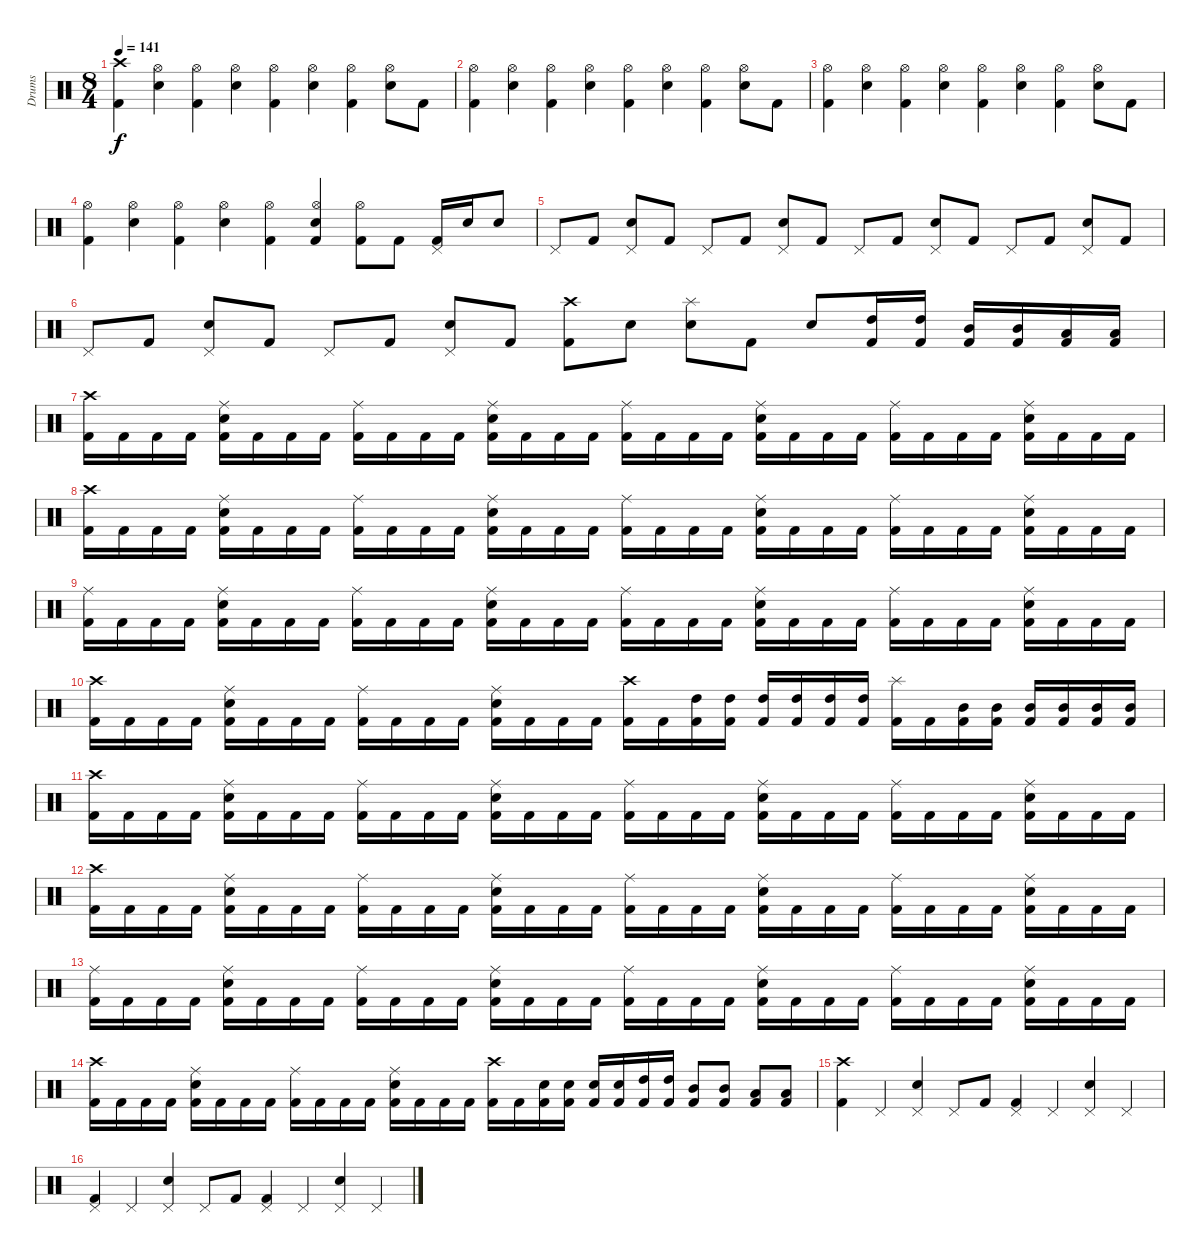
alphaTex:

\track ("Drums" "Drums") {instrument percussion}
\staff {score}
\articulation defaults
\ts (8 4)
\tempo 141
\clef neutral
\ks c
("Crash high (hit)" "Kick (hit) 2").4{dy f} ("Hi-Hat (open)" "Snare (hit) 2").4 ("Hi-Hat (open)" "Kick (hit) 2").4 ("Hi-Hat (open)" "Snare (hit) 2").4 ("Hi-Hat (open)" "Kick (hit) 2").4 ("Hi-Hat (open)" "Snare (hit) 2").4 ("Hi-Hat (open)" "Kick (hit) 2").4 ("Hi-Hat (open)" "Snare (hit) 2").8 "Kick (hit) 2".8 |
("Hi-Hat (open)" "Kick (hit) 2").4 ("Hi-Hat (open)" "Snare (hit) 2").4 ("Hi-Hat (open)" "Kick (hit) 2").4 ("Hi-Hat (open)" "Snare (hit) 2").4 ("Hi-Hat (open)" "Kick (hit) 2").4 ("Hi-Hat (open)" "Snare (hit) 2").4 ("Hi-Hat (open)" "Kick (hit) 2").4 ("Hi-Hat (open)" "Snare (hit) 2").8 "Kick (hit) 2".8 |
("Hi-Hat (open)" "Kick (hit) 2").4 ("Hi-Hat (open)" "Snare (hit) 2").4 ("Hi-Hat (open)" "Kick (hit) 2").4 ("Hi-Hat (open)" "Snare (hit) 2").4 ("Hi-Hat (open)" "Kick (hit) 2").4 ("Hi-Hat (open)" "Snare (hit) 2").4 ("Hi-Hat (open)" "Kick (hit) 2").4 ("Hi-Hat (open)" "Snare (hit) 2").8 "Kick (hit) 2".8 |
("Hi-Hat (open)" "Kick (hit) 2").4 ("Hi-Hat (open)" "Snare (hit) 2").4 ("Hi-Hat (open)" "Kick (hit) 2").4 ("Hi-Hat (open)" "Snare (hit) 2").4 ("Hi-Hat (open)" "Kick (hit) 2").4 ("Hi-Hat (open)" "Snare (hit) 2" "Kick (hit) 2").4 ("Hi-Hat (open)" "Kick (hit) 2").8 "Kick (hit) 2".8 ("Pedal Hi-Hat (hit)" "Kick (hit) 2").16 "Snare (hit) 2".16 "Snare (hit) 2".8 |
"Pedal Hi-Hat (hit)".8 "Kick (hit) 2".8 ("Pedal Hi-Hat (hit)" "Snare (hit) 2").8 "Kick (hit) 2".8 "Pedal Hi-Hat (hit)".8 "Kick (hit) 2".8 ("Pedal Hi-Hat (hit)" "Snare (hit) 2").8 "Kick (hit) 2".8 "Pedal Hi-Hat (hit)".8 "Kick (hit) 2".8 ("Pedal Hi-Hat (hit)" "Snare (hit) 2").8 "Kick (hit) 2".8 "Pedal Hi-Hat (hit)".8 "Kick (hit) 2".8 ("Pedal Hi-Hat (hit)" "Snare (hit) 2").8 "Kick (hit) 2".8 |
"Pedal Hi-Hat (hit)".8 "Kick (hit) 2".8 ("Pedal Hi-Hat (hit)" "Snare (hit) 2").8 "Kick (hit) 2".8 "Pedal Hi-Hat (hit)".8 "Kick (hit) 2".8 ("Pedal Hi-Hat (hit)" "Snare (hit) 2").8 "Kick (hit) 2".8 ("Crash high (hit)" "Kick (hit) 2").8 "Snare (hit) 2".8 ("Splash (hit)" "Snare (hit) 2").8 "Kick (hit) 2".8 "Snare (hit) 2".8 ("High Tom (hit)" "Kick (hit) 2").16 ("High Tom (hit)" "Kick (hit) 2").16 ("Mid Tom (hit)" "Kick (hit) 2").16 ("Mid Tom (hit)" "Kick (hit) 2").16 ("Low Tom (hit)" "Kick (hit) 2").16 ("Low Tom (hit)" "Kick (hit) 2").16 |
("Crash high (hit)" "Kick (hit) 2").16 "Kick (hit) 2".16 "Kick (hit) 2".16 "Kick (hit) 2".16 ("Ride (middle)" "Snare (hit) 2" "Kick (hit) 2").16 "Kick (hit) 2".16 "Kick (hit) 2".16 "Kick (hit) 2".16 ("Ride (middle)" "Kick (hit) 2").16 "Kick (hit) 2".16 "Kick (hit) 2".16 "Kick (hit) 2".16 ("Ride (middle)" "Snare (hit) 2" "Kick (hit) 2").16 "Kick (hit) 2".16 "Kick (hit) 2".16 "Kick (hit) 2".16 ("Ride (middle)" "Kick (hit) 2").16 "Kick (hit) 2".16 "Kick (hit) 2".16 "Kick (hit) 2".16 ("Ride (middle)" "Snare (hit) 2" "Kick (hit) 2").16 "Kick (hit) 2".16 "Kick (hit) 2".16 "Kick (hit) 2".16 ("Ride (middle)" "Kick (hit) 2").16 "Kick (hit) 2".16 "Kick (hit) 2".16 "Kick (hit) 2".16 ("Ride (middle)" "Snare (hit) 2" "Kick (hit) 2").16 "Kick (hit) 2".16 "Kick (hit) 2".16 "Kick (hit) 2".16 |
("Crash high (hit)" "Kick (hit) 2").16 "Kick (hit) 2".16 "Kick (hit) 2".16 "Kick (hit) 2".16 ("Ride (middle)" "Snare (hit) 2" "Kick (hit) 2").16 "Kick (hit) 2".16 "Kick (hit) 2".16 "Kick (hit) 2".16 ("Ride (middle)" "Kick (hit) 2").16 "Kick (hit) 2".16 "Kick (hit) 2".16 "Kick (hit) 2".16 ("Ride (middle)" "Snare (hit) 2" "Kick (hit) 2").16 "Kick (hit) 2".16 "Kick (hit) 2".16 "Kick (hit) 2".16 ("Ride (middle)" "Kick (hit) 2").16 "Kick (hit) 2".16 "Kick (hit) 2".16 "Kick (hit) 2".16 ("Ride (middle)" "Snare (hit) 2" "Kick (hit) 2").16 "Kick (hit) 2".16 "Kick (hit) 2".16 "Kick (hit) 2".16 ("Ride (middle)" "Kick (hit) 2").16 "Kick (hit) 2".16 "Kick (hit) 2".16 "Kick (hit) 2".16 ("Ride (middle)" "Snare (hit) 2" "Kick (hit) 2").16 "Kick (hit) 2".16 "Kick (hit) 2".16 "Kick (hit) 2".16 |
("Ride (middle)" "Kick (hit) 2").16 "Kick (hit) 2".16 "Kick (hit) 2".16 "Kick (hit) 2".16 ("Ride (middle)" "Snare (hit) 2" "Kick (hit) 2").16 "Kick (hit) 2".16 "Kick (hit) 2".16 "Kick (hit) 2".16 ("Ride (middle)" "Kick (hit) 2").16 "Kick (hit) 2".16 "Kick (hit) 2".16 "Kick (hit) 2".16 ("Ride (middle)" "Snare (hit) 2" "Kick (hit) 2").16 "Kick (hit) 2".16 "Kick (hit) 2".16 "Kick (hit) 2".16 ("Ride (middle)" "Kick (hit) 2").16 "Kick (hit) 2".16 "Kick (hit) 2".16 "Kick (hit) 2".16 ("Ride (middle)" "Snare (hit) 2" "Kick (hit) 2").16 "Kick (hit) 2".16 "Kick (hit) 2".16 "Kick (hit) 2".16 ("Ride (middle)" "Kick (hit) 2").16 "Kick (hit) 2".16 "Kick (hit) 2".16 "Kick (hit) 2".16 ("Ride (middle)" "Snare (hit) 2" "Kick (hit) 2").16 "Kick (hit) 2".16 "Kick (hit) 2".16 "Kick (hit) 2".16 |
("Crash high (hit)" "Kick (hit) 2").16 "Kick (hit) 2".16 "Kick (hit) 2".16 "Kick (hit) 2".16 ("Ride (middle)" "Snare (hit) 2" "Kick (hit) 2").16 "Kick (hit) 2".16 "Kick (hit) 2".16 "Kick (hit) 2".16 ("Ride (middle)" "Kick (hit) 2").16 "Kick (hit) 2".16 "Kick (hit) 2".16 "Kick (hit) 2".16 ("Ride (middle)" "Snare (hit) 2" "Kick (hit) 2").16 "Kick (hit) 2".16 "Kick (hit) 2".16 "Kick (hit) 2".16 ("Crash high (hit)" "Kick (hit) 2").16 "Kick (hit) 2".16 ("High Tom (hit)" "Kick (hit) 2").16 ("High Tom (hit)" "Kick (hit) 2").16 ("High Tom (hit)" "Kick (hit) 2").16 ("High Tom (hit)" "Kick (hit) 2").16 ("High Tom (hit)" "Kick (hit) 2").16 ("High Tom (hit)" "Kick (hit) 2").16 ("Splash (hit)" "Kick (hit) 2").16 "Kick (hit) 2".16 ("Mid Tom (hit)" "Kick (hit) 2").16 ("Mid Tom (hit)" "Kick (hit) 2").16 ("Mid Tom (hit)" "Kick (hit) 2").16 ("Mid Tom (hit)" "Kick (hit) 2").16 ("Mid Tom (hit)" "Kick (hit) 2").16 ("Mid Tom (hit)" "Kick (hit) 2").16 |
("Crash high (hit)" "Kick (hit) 2").16 "Kick (hit) 2".16 "Kick (hit) 2".16 "Kick (hit) 2".16 ("Ride (middle)" "Snare (hit) 2" "Kick (hit) 2").16 "Kick (hit) 2".16 "Kick (hit) 2".16 "Kick (hit) 2".16 ("Ride (middle)" "Kick (hit) 2").16 "Kick (hit) 2".16 "Kick (hit) 2".16 "Kick (hit) 2".16 ("Ride (middle)" "Snare (hit) 2" "Kick (hit) 2").16 "Kick (hit) 2".16 "Kick (hit) 2".16 "Kick (hit) 2".16 ("Ride (middle)" "Kick (hit) 2").16 "Kick (hit) 2".16 "Kick (hit) 2".16 "Kick (hit) 2".16 ("Ride (middle)" "Snare (hit) 2" "Kick (hit) 2").16 "Kick (hit) 2".16 "Kick (hit) 2".16 "Kick (hit) 2".16 ("Ride (middle)" "Kick (hit) 2").16 "Kick (hit) 2".16 "Kick (hit) 2".16 "Kick (hit) 2".16 ("Ride (middle)" "Snare (hit) 2" "Kick (hit) 2").16 "Kick (hit) 2".16 "Kick (hit) 2".16 "Kick (hit) 2".16 |
("Crash high (hit)" "Kick (hit) 2").16 "Kick (hit) 2".16 "Kick (hit) 2".16 "Kick (hit) 2".16 ("Ride (middle)" "Snare (hit) 2" "Kick (hit) 2").16 "Kick (hit) 2".16 "Kick (hit) 2".16 "Kick (hit) 2".16 ("Ride (middle)" "Kick (hit) 2").16 "Kick (hit) 2".16 "Kick (hit) 2".16 "Kick (hit) 2".16 ("Ride (middle)" "Snare (hit) 2" "Kick (hit) 2").16 "Kick (hit) 2".16 "Kick (hit) 2".16 "Kick (hit) 2".16 ("Ride (middle)" "Kick (hit) 2").16 "Kick (hit) 2".16 "Kick (hit) 2".16 "Kick (hit) 2".16 ("Ride (middle)" "Snare (hit) 2" "Kick (hit) 2").16 "Kick (hit) 2".16 "Kick (hit) 2".16 "Kick (hit) 2".16 ("Ride (middle)" "Kick (hit) 2").16 "Kick (hit) 2".16 "Kick (hit) 2".16 "Kick (hit) 2".16 ("Ride (middle)" "Snare (hit) 2" "Kick (hit) 2").16 "Kick (hit) 2".16 "Kick (hit) 2".16 "Kick (hit) 2".16 |
("Ride (middle)" "Kick (hit) 2").16 "Kick (hit) 2".16 "Kick (hit) 2".16 "Kick (hit) 2".16 ("Ride (middle)" "Snare (hit) 2" "Kick (hit) 2").16 "Kick (hit) 2".16 "Kick (hit) 2".16 "Kick (hit) 2".16 ("Ride (middle)" "Kick (hit) 2").16 "Kick (hit) 2".16 "Kick (hit) 2".16 "Kick (hit) 2".16 ("Ride (middle)" "Snare (hit) 2" "Kick (hit) 2").16 "Kick (hit) 2".16 "Kick (hit) 2".16 "Kick (hit) 2".16 ("Ride (middle)" "Kick (hit) 2").16 "Kick (hit) 2".16 "Kick (hit) 2".16 "Kick (hit) 2".16 ("Ride (middle)" "Snare (hit) 2" "Kick (hit) 2").16 "Kick (hit) 2".16 "Kick (hit) 2".16 "Kick (hit) 2".16 ("Ride (middle)" "Kick (hit) 2").16 "Kick (hit) 2".16 "Kick (hit) 2".16 "Kick (hit) 2".16 ("Ride (middle)" "Snare (hit) 2" "Kick (hit) 2").16 "Kick (hit) 2".16 "Kick (hit) 2".16 "Kick (hit) 2".16 |
("Crash high (hit)" "Kick (hit) 2").16 "Kick (hit) 2".16 "Kick (hit) 2".16 "Kick (hit) 2".16 ("Ride (middle)" "Snare (hit) 2" "Kick (hit) 2").16 "Kick (hit) 2".16 "Kick (hit) 2".16 "Kick (hit) 2".16 ("Ride (middle)" "Kick (hit) 2").16 "Kick (hit) 2".16 "Kick (hit) 2".16 "Kick (hit) 2".16 ("Ride (middle)" "Snare (hit) 2" "Kick (hit) 2").16 "Kick (hit) 2".16 "Kick (hit) 2".16 "Kick (hit) 2".16 ("Crash high (hit)" "Kick (hit) 2").16 "Kick (hit) 2".16 ("Snare (hit) 2" "Kick (hit) 2").16 ("Snare (hit) 2" "Kick (hit) 2").16 ("Snare (hit) 2" "Kick (hit) 2").16 ("Snare (hit) 2" "Kick (hit) 2").16 ("High Tom (hit)" "Kick (hit) 2").16 ("High Tom (hit)" "Kick (hit) 2").16 ("Mid Tom (hit)" "Kick (hit) 2").8 ("Mid Tom (hit)" "Kick (hit) 2").8 ("Low Tom (hit)" "Kick (hit) 2").8 ("Low Tom (hit)" "Kick (hit) 2").8 |
("Crash high (hit)" "Kick (hit) 2").4 "Pedal Hi-Hat (hit)".4 ("Pedal Hi-Hat (hit)" "Snare (hit) 2").4 "Pedal Hi-Hat (hit)".8 "Kick (hit) 2".8 ("Pedal Hi-Hat (hit)" "Kick (hit) 2").4 "Pedal Hi-Hat (hit)".4 ("Pedal Hi-Hat (hit)" "Snare (hit) 2").4 "Pedal Hi-Hat (hit)".4 |
("Pedal Hi-Hat (hit)" "Kick (hit) 2").4 "Pedal Hi-Hat (hit)".4 ("Pedal Hi-Hat (hit)" "Snare (hit) 2").4 "Pedal Hi-Hat (hit)".8 "Kick (hit) 2".8 ("Pedal Hi-Hat (hit)" "Kick (hit) 2").4 "Pedal Hi-Hat (hit)".4 ("Pedal Hi-Hat (hit)" "Snare (hit) 2").4 "Pedal Hi-Hat (hit)".4
